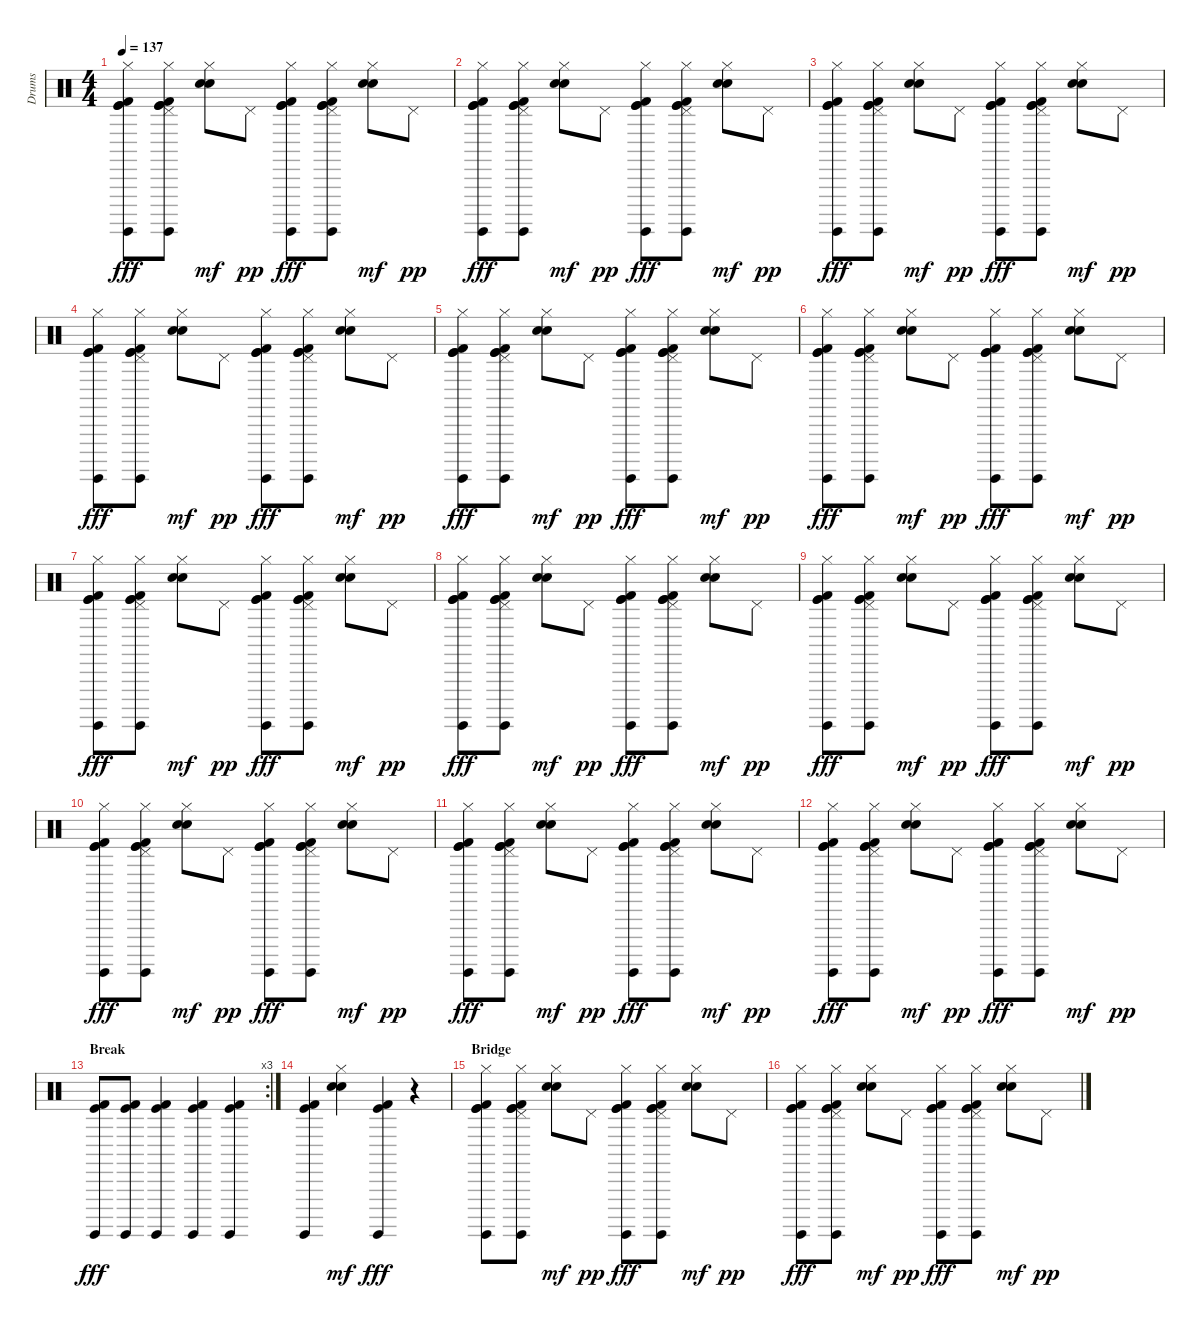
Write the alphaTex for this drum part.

\track ("Drums" "Drums") {instrument percussion}
\staff {score}
\articulation defaults
\ts (4 4)
\tempo 137
\clef neutral
\ks c
("Hi-Hat (closed)" "Kick (hit)" "Surdo (hit)" "Kick (hit) 2" "Kick (hit)").8{dy fff} ("Pedal Hi-Hat (hit)" "Hi-Hat (closed)" "Kick (hit)" "Surdo (hit)" "Kick (hit) 2" "Kick (hit)").8 ("Hi-Hat (closed)" "Hand Clap (hit)" "Snare (hit) 2").8{dy mf} "Pedal Hi-Hat (hit)".8{dy pp} ("Hi-Hat (closed)" "Kick (hit)" "Surdo (hit)" "Kick (hit) 2" "Kick (hit)").8{dy fff} ("Pedal Hi-Hat (hit)" "Hi-Hat (closed)" "Kick (hit)" "Surdo (hit)" "Kick (hit) 2" "Kick (hit)").8 ("Hi-Hat (closed)" "Hand Clap (hit)" "Snare (hit) 2").8{dy mf} "Pedal Hi-Hat (hit)".8{dy pp} |
("Hi-Hat (closed)" "Kick (hit)" "Surdo (hit)" "Kick (hit) 2" "Kick (hit)").8{dy fff} ("Pedal Hi-Hat (hit)" "Hi-Hat (closed)" "Kick (hit)" "Surdo (hit)" "Kick (hit) 2" "Kick (hit)").8 ("Hi-Hat (closed)" "Hand Clap (hit)" "Snare (hit) 2").8{dy mf} "Pedal Hi-Hat (hit)".8{dy pp} ("Hi-Hat (closed)" "Kick (hit)" "Surdo (hit)" "Kick (hit) 2" "Kick (hit)").8{dy fff} ("Pedal Hi-Hat (hit)" "Hi-Hat (closed)" "Kick (hit)" "Surdo (hit)" "Kick (hit) 2" "Kick (hit)").8 ("Hi-Hat (closed)" "Hand Clap (hit)" "Snare (hit) 2").8{dy mf} "Pedal Hi-Hat (hit)".8{dy pp} |
("Hi-Hat (closed)" "Kick (hit)" "Surdo (hit)" "Kick (hit) 2" "Kick (hit)").8{dy fff} ("Pedal Hi-Hat (hit)" "Hi-Hat (closed)" "Kick (hit)" "Surdo (hit)" "Kick (hit) 2" "Kick (hit)").8 ("Hi-Hat (closed)" "Hand Clap (hit)" "Snare (hit) 2").8{dy mf} "Pedal Hi-Hat (hit)".8{dy pp} ("Hi-Hat (closed)" "Kick (hit)" "Surdo (hit)" "Kick (hit) 2" "Kick (hit)").8{dy fff} ("Pedal Hi-Hat (hit)" "Hi-Hat (closed)" "Kick (hit)" "Surdo (hit)" "Kick (hit) 2" "Kick (hit)").8 ("Hi-Hat (closed)" "Hand Clap (hit)" "Snare (hit) 2").8{dy mf} "Pedal Hi-Hat (hit)".8{dy pp} |
("Hi-Hat (closed)" "Kick (hit)" "Surdo (hit)" "Kick (hit) 2" "Kick (hit)").8{dy fff} ("Pedal Hi-Hat (hit)" "Hi-Hat (closed)" "Kick (hit)" "Surdo (hit)" "Kick (hit) 2" "Kick (hit)").8 ("Hi-Hat (closed)" "Hand Clap (hit)" "Snare (hit) 2").8{dy mf} "Pedal Hi-Hat (hit)".8{dy pp} ("Hi-Hat (closed)" "Kick (hit)" "Surdo (hit)" "Kick (hit) 2" "Kick (hit)").8{dy fff} ("Pedal Hi-Hat (hit)" "Hi-Hat (closed)" "Kick (hit)" "Surdo (hit)" "Kick (hit) 2" "Kick (hit)").8 ("Hi-Hat (closed)" "Hand Clap (hit)" "Snare (hit) 2").8{dy mf} "Pedal Hi-Hat (hit)".8{dy pp} |
("Hi-Hat (closed)" "Kick (hit)" "Surdo (hit)" "Kick (hit) 2" "Kick (hit)").8{dy fff} ("Pedal Hi-Hat (hit)" "Hi-Hat (closed)" "Kick (hit)" "Surdo (hit)" "Kick (hit) 2" "Kick (hit)").8 ("Hi-Hat (closed)" "Hand Clap (hit)" "Snare (hit) 2").8{dy mf} "Pedal Hi-Hat (hit)".8{dy pp} ("Hi-Hat (closed)" "Kick (hit)" "Surdo (hit)" "Kick (hit) 2" "Kick (hit)").8{dy fff} ("Pedal Hi-Hat (hit)" "Hi-Hat (closed)" "Kick (hit)" "Surdo (hit)" "Kick (hit) 2" "Kick (hit)").8 ("Hi-Hat (closed)" "Hand Clap (hit)" "Snare (hit) 2").8{dy mf} "Pedal Hi-Hat (hit)".8{dy pp} |
("Hi-Hat (closed)" "Kick (hit)" "Surdo (hit)" "Kick (hit) 2" "Kick (hit)").8{dy fff} ("Pedal Hi-Hat (hit)" "Hi-Hat (closed)" "Kick (hit)" "Surdo (hit)" "Kick (hit) 2" "Kick (hit)").8 ("Hi-Hat (closed)" "Hand Clap (hit)" "Snare (hit) 2").8{dy mf} "Pedal Hi-Hat (hit)".8{dy pp} ("Hi-Hat (closed)" "Kick (hit)" "Surdo (hit)" "Kick (hit) 2" "Kick (hit)").8{dy fff} ("Pedal Hi-Hat (hit)" "Hi-Hat (closed)" "Kick (hit)" "Surdo (hit)" "Kick (hit) 2" "Kick (hit)").8 ("Hi-Hat (closed)" "Hand Clap (hit)" "Snare (hit) 2").8{dy mf} "Pedal Hi-Hat (hit)".8{dy pp} |
("Hi-Hat (closed)" "Kick (hit)" "Surdo (hit)" "Kick (hit) 2" "Kick (hit)").8{dy fff} ("Pedal Hi-Hat (hit)" "Hi-Hat (closed)" "Kick (hit)" "Surdo (hit)" "Kick (hit) 2" "Kick (hit)").8 ("Hi-Hat (closed)" "Hand Clap (hit)" "Snare (hit) 2").8{dy mf} "Pedal Hi-Hat (hit)".8{dy pp} ("Hi-Hat (closed)" "Kick (hit)" "Surdo (hit)" "Kick (hit) 2" "Kick (hit)").8{dy fff} ("Pedal Hi-Hat (hit)" "Hi-Hat (closed)" "Kick (hit)" "Surdo (hit)" "Kick (hit) 2" "Kick (hit)").8 ("Hi-Hat (closed)" "Hand Clap (hit)" "Snare (hit) 2").8{dy mf} "Pedal Hi-Hat (hit)".8{dy pp} |
("Hi-Hat (closed)" "Kick (hit)" "Surdo (hit)" "Kick (hit) 2" "Kick (hit)").8{dy fff} ("Pedal Hi-Hat (hit)" "Hi-Hat (closed)" "Kick (hit)" "Surdo (hit)" "Kick (hit) 2" "Kick (hit)").8 ("Hi-Hat (closed)" "Hand Clap (hit)" "Snare (hit) 2").8{dy mf} "Pedal Hi-Hat (hit)".8{dy pp} ("Hi-Hat (closed)" "Kick (hit)" "Surdo (hit)" "Kick (hit) 2" "Kick (hit)").8{dy fff} ("Pedal Hi-Hat (hit)" "Hi-Hat (closed)" "Kick (hit)" "Surdo (hit)" "Kick (hit) 2" "Kick (hit)").8 ("Hi-Hat (closed)" "Hand Clap (hit)" "Snare (hit) 2").8{dy mf} "Pedal Hi-Hat (hit)".8{dy pp} |
("Hi-Hat (closed)" "Kick (hit)" "Surdo (hit)" "Kick (hit) 2" "Kick (hit)").8{dy fff} ("Pedal Hi-Hat (hit)" "Hi-Hat (closed)" "Kick (hit)" "Surdo (hit)" "Kick (hit) 2" "Kick (hit)").8 ("Hi-Hat (closed)" "Hand Clap (hit)" "Snare (hit) 2").8{dy mf} "Pedal Hi-Hat (hit)".8{dy pp} ("Hi-Hat (closed)" "Kick (hit)" "Surdo (hit)" "Kick (hit) 2" "Kick (hit)").8{dy fff} ("Pedal Hi-Hat (hit)" "Hi-Hat (closed)" "Kick (hit)" "Surdo (hit)" "Kick (hit) 2" "Kick (hit)").8 ("Hi-Hat (closed)" "Hand Clap (hit)" "Snare (hit) 2").8{dy mf} "Pedal Hi-Hat (hit)".8{dy pp} |
("Hi-Hat (closed)" "Kick (hit)" "Surdo (hit)" "Kick (hit) 2" "Kick (hit)").8{dy fff} ("Pedal Hi-Hat (hit)" "Hi-Hat (closed)" "Kick (hit)" "Surdo (hit)" "Kick (hit) 2" "Kick (hit)").8 ("Hi-Hat (closed)" "Hand Clap (hit)" "Snare (hit) 2").8{dy mf} "Pedal Hi-Hat (hit)".8{dy pp} ("Hi-Hat (closed)" "Kick (hit)" "Surdo (hit)" "Kick (hit) 2" "Kick (hit)").8{dy fff} ("Pedal Hi-Hat (hit)" "Hi-Hat (closed)" "Kick (hit)" "Surdo (hit)" "Kick (hit) 2" "Kick (hit)").8 ("Hi-Hat (closed)" "Hand Clap (hit)" "Snare (hit) 2").8{dy mf} "Pedal Hi-Hat (hit)".8{dy pp} |
("Hi-Hat (closed)" "Kick (hit)" "Surdo (hit)" "Kick (hit) 2" "Kick (hit)").8{dy fff} ("Pedal Hi-Hat (hit)" "Hi-Hat (closed)" "Kick (hit)" "Surdo (hit)" "Kick (hit) 2" "Kick (hit)").8 ("Hi-Hat (closed)" "Hand Clap (hit)" "Snare (hit) 2").8{dy mf} "Pedal Hi-Hat (hit)".8{dy pp} ("Hi-Hat (closed)" "Kick (hit)" "Surdo (hit)" "Kick (hit) 2" "Kick (hit)").8{dy fff} ("Pedal Hi-Hat (hit)" "Hi-Hat (closed)" "Kick (hit)" "Surdo (hit)" "Kick (hit) 2" "Kick (hit)").8 ("Hi-Hat (closed)" "Hand Clap (hit)" "Snare (hit) 2").8{dy mf} "Pedal Hi-Hat (hit)".8{dy pp} |
("Hi-Hat (closed)" "Kick (hit)" "Surdo (hit)" "Kick (hit) 2" "Kick (hit)").8{dy fff} ("Pedal Hi-Hat (hit)" "Hi-Hat (closed)" "Kick (hit)" "Surdo (hit)" "Kick (hit) 2" "Kick (hit)").8 ("Hi-Hat (closed)" "Hand Clap (hit)" "Snare (hit) 2").8{dy mf} "Pedal Hi-Hat (hit)".8{dy pp} ("Hi-Hat (closed)" "Kick (hit)" "Surdo (hit)" "Kick (hit) 2" "Kick (hit)").8{dy fff} ("Pedal Hi-Hat (hit)" "Hi-Hat (closed)" "Kick (hit)" "Surdo (hit)" "Kick (hit) 2" "Kick (hit)").8 ("Hi-Hat (closed)" "Hand Clap (hit)" "Snare (hit) 2").8{dy mf} "Pedal Hi-Hat (hit)".8{dy pp} |
\rc 3
\section ("" "Break")
("Surdo (hit)" "Kick (hit) 2" "Kick (hit)").8{dy fff} ("Surdo (hit)" "Kick (hit) 2" "Kick (hit)").8 ("Surdo (hit)" "Kick (hit) 2" "Kick (hit)").4 ("Surdo (hit)" "Kick (hit) 2" "Kick (hit)").4 ("Surdo (hit)" "Kick (hit) 2" "Kick (hit)").4 |
("Surdo (hit)" "Kick (hit) 2" "Kick (hit)").4 ("Hi-Hat (closed)" "Hand Clap (hit)" "Snare (hit) 2").4{dy mf} ("Surdo (hit)" "Kick (hit) 2" "Kick (hit)").4{dy fff} r.4 |
\section ("" "Bridge")
("Hi-Hat (closed)" "Kick (hit)" "Surdo (hit)" "Kick (hit) 2" "Kick (hit)").8 ("Pedal Hi-Hat (hit)" "Hi-Hat (closed)" "Kick (hit)" "Surdo (hit)" "Kick (hit) 2" "Kick (hit)").8 ("Hi-Hat (closed)" "Hand Clap (hit)" "Snare (hit) 2").8{dy mf} "Pedal Hi-Hat (hit)".8{dy pp} ("Hi-Hat (closed)" "Kick (hit)" "Surdo (hit)" "Kick (hit) 2" "Kick (hit)").8{dy fff} ("Pedal Hi-Hat (hit)" "Hi-Hat (closed)" "Kick (hit)" "Surdo (hit)" "Kick (hit) 2" "Kick (hit)").8 ("Hi-Hat (closed)" "Hand Clap (hit)" "Snare (hit) 2").8{dy mf} "Pedal Hi-Hat (hit)".8{dy pp} |
("Hi-Hat (closed)" "Kick (hit)" "Surdo (hit)" "Kick (hit) 2" "Kick (hit)").8{dy fff} ("Pedal Hi-Hat (hit)" "Hi-Hat (closed)" "Kick (hit)" "Surdo (hit)" "Kick (hit) 2" "Kick (hit)").8 ("Hi-Hat (closed)" "Hand Clap (hit)" "Snare (hit) 2").8{dy mf} "Pedal Hi-Hat (hit)".8{dy pp} ("Hi-Hat (closed)" "Kick (hit)" "Surdo (hit)" "Kick (hit) 2" "Kick (hit)").8{dy fff} ("Pedal Hi-Hat (hit)" "Hi-Hat (closed)" "Kick (hit)" "Surdo (hit)" "Kick (hit) 2" "Kick (hit)").8 ("Hi-Hat (closed)" "Hand Clap (hit)" "Snare (hit) 2").8{dy mf} "Pedal Hi-Hat (hit)".8{dy pp}
